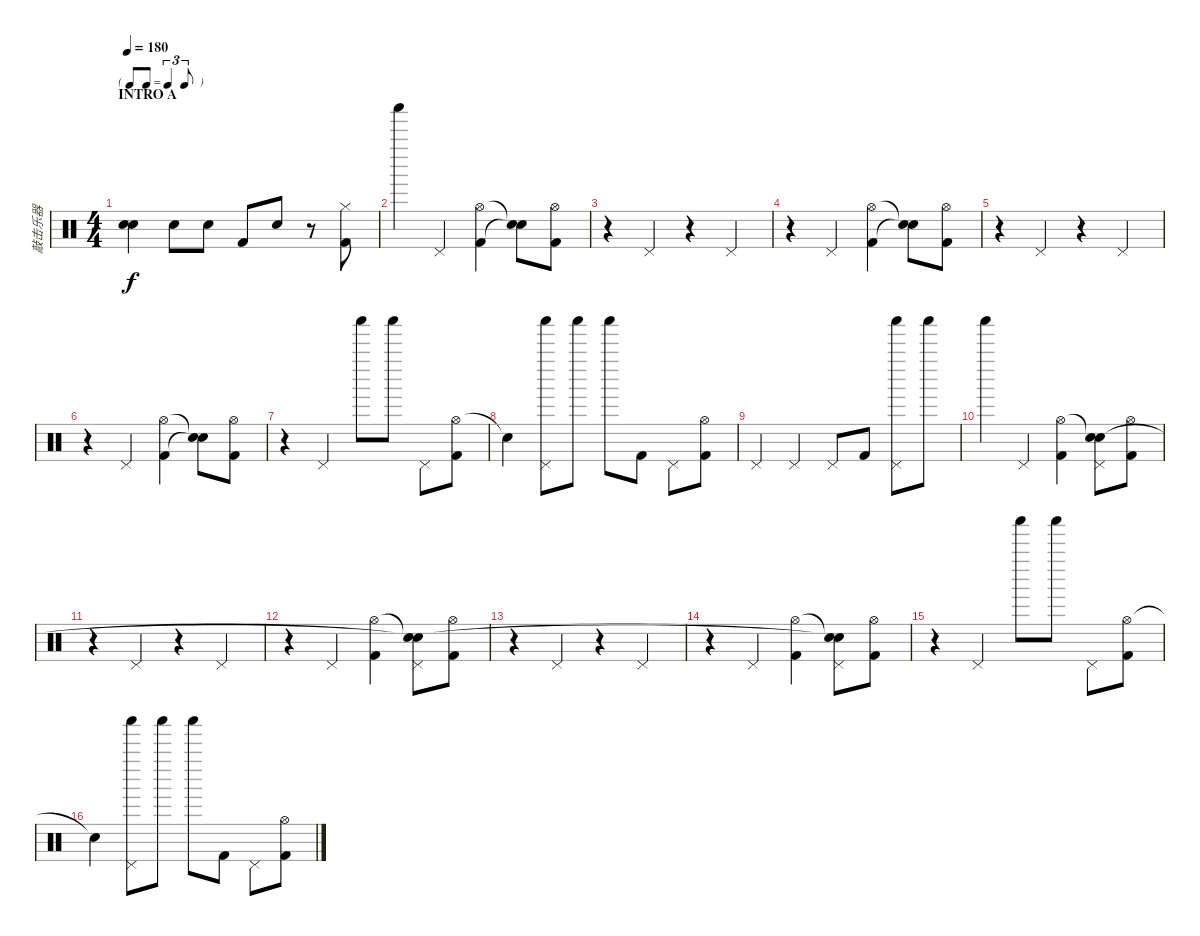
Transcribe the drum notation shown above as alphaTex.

\track ("敲击乐器" "敲击乐器") {instrument percussion}
\staff {score}
\articulation defaults
\ts (4 4)
\tf triplet8th
\section ("" "INTRO A")
\tempo 180
\clef neutral
\ks c
("Snare (hit)"{t} "Snare (hit)"{t}).4{dy f} "Electric Snare (hit)".8 "Electric Snare (hit)".8 "Kick (hit) 2".8 "Electric Snare (hit)".8 r.8 ("Hi-Hat (closed)" "Kick (hit) 2").8 |
"Shaker (hit)".4 "Pedal Hi-Hat (hit)".4 ("Hi-Hat (open)" "Kick (hit) 2").4 ("Snare (hit)"{t} "Snare (hit)"{t}).8 ("Hi-Hat (open)" "Kick (hit) 2").8 |
r.4 "Pedal Hi-Hat (hit)".4 r.4 "Pedal Hi-Hat (hit)".4 |
r.4 "Pedal Hi-Hat (hit)".4 ("Hi-Hat (open)" "Kick (hit) 2").4 ("Snare (hit)"{t} "Snare (hit)"{t}).8 ("Hi-Hat (open)" "Kick (hit) 2").8 |
r.4 "Pedal Hi-Hat (hit)".4 r.4 "Pedal Hi-Hat (hit)".4 |
r.4 "Pedal Hi-Hat (hit)".4 ("Hi-Hat (open)" "Kick (hit) 2").4 ("Snare (hit)"{t} "Snare (hit)"{t}).8 ("Hi-Hat (open)" "Kick (hit) 2").8 |
r.4 "Pedal Hi-Hat (hit)".4 "Shaker (hit)".8 "Shaker (hit)".8 "Pedal Hi-Hat (hit)".8 ("Hi-Hat (open)" "Kick (hit) 2").8 |
"Snare (hit)"{t}.4 ("Pedal Hi-Hat (hit)" "Shaker (hit)").8 "Shaker (hit)".8 "Shaker (hit)".8 "Kick (hit) 2".8 "Pedal Hi-Hat (hit)".8 ("Hi-Hat (open)" "Kick (hit) 2").8 |
"Pedal Hi-Hat (hit)".4 "Pedal Hi-Hat (hit)".4 "Pedal Hi-Hat (hit)".8 "Kick (hit) 2".8 ("Pedal Hi-Hat (hit)" "Shaker (hit)").8 "Shaker (hit)".8 |
"Shaker (hit)".4 "Pedal Hi-Hat (hit)".4 ("Hi-Hat (open)" "Kick (hit) 2").4 ("Snare (hit)"{t} "Pedal Hi-Hat (hit)" "Snare (hit)").8 ("Hi-Hat (open)" "Kick (hit) 2").8 |
r.4 "Pedal Hi-Hat (hit)".4 r.4 "Pedal Hi-Hat (hit)".4 |
r.4 "Pedal Hi-Hat (hit)".4 ("Hi-Hat (open)" "Kick (hit) 2").4 ("Snare (hit)"{t} "Pedal Hi-Hat (hit)" "Snare (hit)"{t}).8 ("Hi-Hat (open)" "Kick (hit) 2").8 |
r.4 "Pedal Hi-Hat (hit)".4 r.4 "Pedal Hi-Hat (hit)".4 |
r.4 "Pedal Hi-Hat (hit)".4 ("Hi-Hat (open)" "Kick (hit) 2").4 ("Snare (hit)"{t} "Pedal Hi-Hat (hit)" "Snare (hit)"{t}).8 ("Hi-Hat (open)" "Kick (hit) 2").8 |
r.4 "Pedal Hi-Hat (hit)".4 "Shaker (hit)".8 "Shaker (hit)".8 "Pedal Hi-Hat (hit)".8 ("Hi-Hat (open)" "Kick (hit) 2").8 |
"Snare (hit)"{t}.4 ("Pedal Hi-Hat (hit)" "Shaker (hit)").8 "Shaker (hit)".8 "Shaker (hit)".8 "Kick (hit) 2".8 "Pedal Hi-Hat (hit)".8 ("Hi-Hat (open)" "Kick (hit) 2").8
